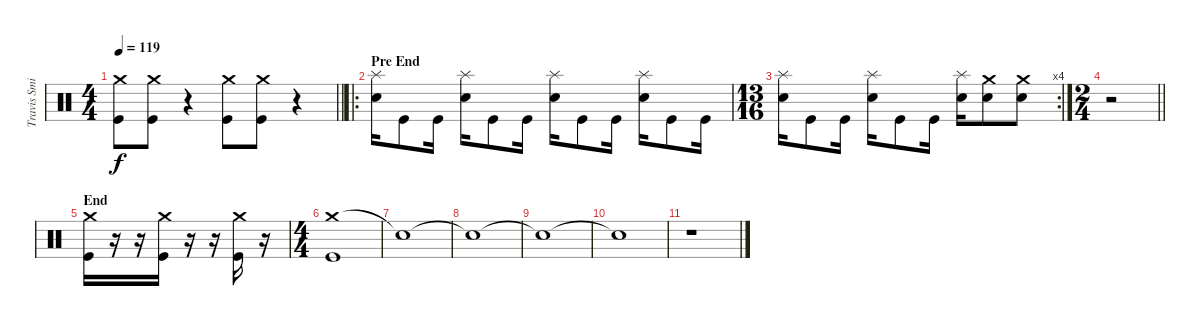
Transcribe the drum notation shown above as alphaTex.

\track ("Travis Smith (Drums)" "Travis Smi") {instrument percussion}
\staff {score}
\articulation defaults
\ts (4 4)
\tempo 119
\clef neutral
\barLineRight lightlight
\ks c
("Crash medium (hit)" "Kick (hit)").8{dy f} ("Crash medium (hit)" "Kick (hit)").8 r.4 ("Crash medium (hit)" "Kick (hit)").8 ("Crash medium (hit)" "Kick (hit)").8 r.4 |
\ro
\section ("" "Pre End")
("Splash (hit)" "Electric Snare (hit)").16 "Kick (hit)".8 "Kick (hit)".16 ("Splash (hit)" "Electric Snare (hit)").16 "Kick (hit)".8 "Kick (hit)".16 ("Splash (hit)" "Electric Snare (hit)").16 "Kick (hit)".8 "Kick (hit)".16 ("Splash (hit)" "Electric Snare (hit)").16 "Kick (hit)".8 "Kick (hit)".16 |
\rc 4
\ts (13 16)
("Splash (hit)" "Electric Snare (hit)").16 "Kick (hit)".8 "Kick (hit)".16 ("Splash (hit)" "Electric Snare (hit)").16 "Kick (hit)".8 "Kick (hit)".16 ("Splash (hit)" "Electric Snare (hit)").16 ("Crash medium (hit)" "Electric Snare (hit)").8 ("Crash medium (hit)" "Electric Snare (hit)").8 |
\ts (2 4)
\barLineRight lightlight
r.2 |
\section ("" "End")
("Crash medium (hit)" "Kick (hit)").16 r.16 r.16 ("Crash medium (hit)" "Kick (hit)").16 r.16 r.16 ("Crash medium (hit)" "Kick (hit)").16 r.16 |
\ts (4 4)
("Crash medium (hit)" "Kick (hit)").1 |
"Snare (hit)"{t}.1 |
"Snare (hit)"{t}.1 |
"Snare (hit)"{t}.1 |
"Snare (hit)"{t}.1 |
r.1
